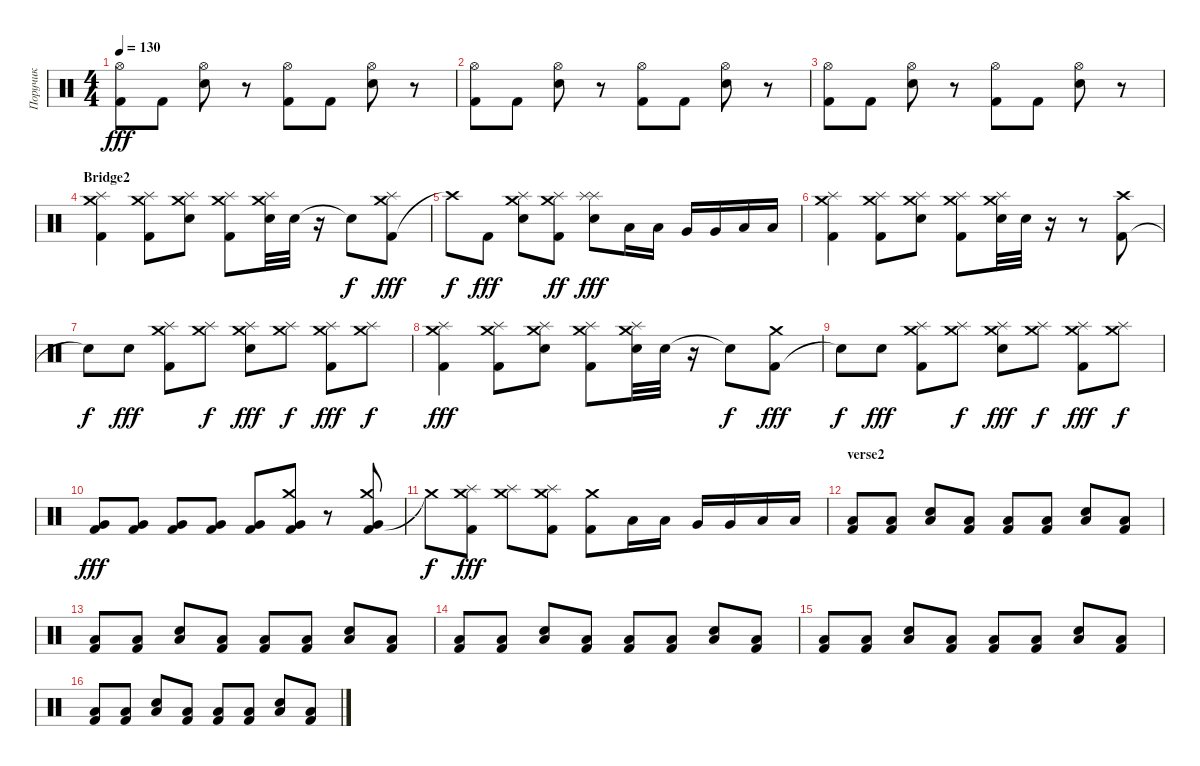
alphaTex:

\track ("Поручик" "Поручик") {instrument percussion}
\staff {score}
\articulation defaults
\ts (4 4)
\tempo 130
\clef neutral
\ks c
("Kick (hit) 2" "Hi-Hat (open)").8{dy fff} "Kick (hit) 2".8 ("Snare (hit) 2" "Hi-Hat (open)").8 r.8 ("Kick (hit) 2" "Hi-Hat (open)").8 "Kick (hit) 2".8 ("Snare (hit) 2" "Hi-Hat (open)").8 r.8 |
("Kick (hit) 2" "Hi-Hat (open)").8 "Kick (hit) 2".8 ("Snare (hit) 2" "Hi-Hat (open)").8 r.8 ("Kick (hit) 2" "Hi-Hat (open)").8 "Kick (hit) 2".8 ("Snare (hit) 2" "Hi-Hat (open)").8 r.8 |
("Kick (hit) 2" "Hi-Hat (open)").8 "Kick (hit) 2".8 ("Snare (hit) 2" "Hi-Hat (open)").8 r.8 ("Kick (hit) 2" "Hi-Hat (open)").8 "Kick (hit) 2".8 ("Snare (hit) 2" "Hi-Hat (open)").8 r.8 |
\section ("" "Bridge2")
("Kick (hit) 2" "Crash medium (hit)" "Splash (hit)").4 ("Kick (hit) 2" "Crash medium (hit)" "Splash (hit)").8 ("Snare (hit) 2" "Crash medium (hit)" "Splash (hit)").8 ("Kick (hit) 2" "Crash medium (hit)" "Splash (hit)").8 ("Snare (hit) 2" "Crash medium (hit)" "Splash (hit)").32 "Snare (hit) 2".32 r.16 "Snare (hit)"{t}.8{dy f} ("Kick (hit) 2" "Crash medium (hit)" "Splash (hit)").8{dy fff} |
"Crash high (hit)"{t}.8{dy f} "Kick (hit) 2".8{dy fff} ("Snare (hit) 2" "Crash medium (hit)" "Splash (hit)").8 ("Kick (hit) 2" "Crash medium (hit)" "Splash (hit)").8{dy ff} ("Snare (hit) 2" "Splash (hit)" "Splash (hit)").8{dy fff} "Low Tom (hit)".16 "Low Tom (hit)".16 "Very Low Tom (hit)".16 "Very Low Tom (hit)".16 "Low Floor Tom (hit)".16 "Low Floor Tom (hit)".16 |
("Kick (hit) 2" "Crash medium (hit)" "Splash (hit)").4 ("Kick (hit) 2" "Crash medium (hit)" "Splash (hit)").8 ("Snare (hit) 2" "Crash medium (hit)" "Splash (hit)").8 ("Kick (hit) 2" "Crash medium (hit)" "Splash (hit)").8 ("Snare (hit) 2" "Crash medium (hit)" "Splash (hit)").32 "Snare (hit) 2".32 r.16 r.8 ("Kick (hit) 2" "Crash high (hit)").8 |
"Snare (hit)"{t}.8{dy f} "Snare (hit) 2".8{dy fff} ("Kick (hit) 2" "Crash medium (hit)" "Splash (hit)").8 ("Crash medium (hit)" "Splash (hit)").8{dy f} ("Snare (hit) 2" "Crash medium (hit)" "Splash (hit)").8{dy fff} ("Crash medium (hit)" "Splash (hit)").8{dy f} ("Kick (hit) 2" "Crash medium (hit)" "Splash (hit)").8{dy fff} ("Crash medium (hit)" "Splash (hit)").8{dy f} |
("Kick (hit) 2" "Crash medium (hit)" "Splash (hit)").4{dy fff} ("Kick (hit) 2" "Crash medium (hit)" "Splash (hit)").8 ("Snare (hit) 2" "Crash medium (hit)" "Splash (hit)").8 ("Kick (hit) 2" "Crash medium (hit)" "Splash (hit)").8 ("Snare (hit) 2" "Crash medium (hit)" "Splash (hit)").32 "Snare (hit) 2".32 r.16 "Snare (hit)"{t}.8{dy f} ("Kick (hit) 2" "Crash medium (hit)").8{dy fff} |
"Snare (hit)"{t}.8{dy f} "Snare (hit) 2".8{dy fff} ("Kick (hit) 2" "Crash medium (hit)" "Splash (hit)").8 ("Crash medium (hit)" "Splash (hit)").8{dy f} ("Snare (hit) 2" "Crash medium (hit)" "Splash (hit)").8{dy fff} ("Crash medium (hit)" "Splash (hit)").8{dy f} ("Kick (hit) 2" "Crash medium (hit)" "Splash (hit)").8{dy fff} ("Crash medium (hit)" "Splash (hit)").8{dy f} |
("Very Low Tom (hit)" "Kick (hit) 2").8{dy fff} ("Very Low Tom (hit)" "Kick (hit) 2").8 ("Very Low Tom (hit)" "Kick (hit) 2").8 ("Very Low Tom (hit)" "Kick (hit) 2").8 ("Very Low Tom (hit)" "Kick (hit) 2").8 ("Very Low Tom (hit)" "Kick (hit) 2" "Crash medium (hit)").8 r.8 ("Very Low Tom (hit)" "Kick (hit) 2" "Crash medium (hit)").8 |
"Crash medium (hit)"{t}.8{dy f} ("Kick (hit) 2" "Crash medium (hit)" "Splash (hit)").8{dy fff} ("Crash medium (hit)" "Splash (hit)").8 ("Kick (hit) 2" "Crash medium (hit)" "Splash (hit)").8 ("Kick (hit) 2" "Crash medium (hit)").8 "Low Tom (hit)".16 "Low Tom (hit)".16 "Very Low Tom (hit)".16 "Very Low Tom (hit)".16 "Low Floor Tom (hit)".16 "Low Floor Tom (hit)".16 |
\section ("" "verse2")
("Kick (hit) 2" "Low Tom (hit)").8 ("Kick (hit) 2" "Low Tom (hit)").8 ("Snare (hit) 2" "Low Tom (hit)").8 ("Kick (hit) 2" "Low Tom (hit)").8 ("Kick (hit) 2" "Low Tom (hit)").8 ("Kick (hit) 2" "Low Tom (hit)").8 ("Snare (hit) 2" "Low Tom (hit)").8 ("Kick (hit) 2" "Low Tom (hit)").8 |
("Kick (hit) 2" "Low Tom (hit)").8 ("Kick (hit) 2" "Low Tom (hit)").8 ("Snare (hit) 2" "Low Tom (hit)").8 ("Kick (hit) 2" "Low Tom (hit)").8 ("Kick (hit) 2" "Low Tom (hit)").8 ("Kick (hit) 2" "Low Tom (hit)").8 ("Snare (hit) 2" "Low Tom (hit)").8 ("Kick (hit) 2" "Low Tom (hit)").8 |
("Kick (hit) 2" "Low Tom (hit)").8 ("Kick (hit) 2" "Low Tom (hit)").8 ("Snare (hit) 2" "Low Tom (hit)").8 ("Kick (hit) 2" "Low Tom (hit)").8 ("Kick (hit) 2" "Low Tom (hit)").8 ("Kick (hit) 2" "Low Tom (hit)").8 ("Snare (hit) 2" "Low Tom (hit)").8 ("Kick (hit) 2" "Low Tom (hit)").8 |
("Kick (hit) 2" "Low Tom (hit)").8 ("Kick (hit) 2" "Low Tom (hit)").8 ("Snare (hit) 2" "Low Tom (hit)").8 ("Kick (hit) 2" "Low Tom (hit)").8 ("Kick (hit) 2" "Low Tom (hit)").8 ("Kick (hit) 2" "Low Tom (hit)").8 ("Snare (hit) 2" "Low Tom (hit)").8 ("Kick (hit) 2" "Low Tom (hit)").8 |
("Kick (hit) 2" "Low Tom (hit)").8 ("Kick (hit) 2" "Low Tom (hit)").8 ("Snare (hit) 2" "Low Tom (hit)").8 ("Kick (hit) 2" "Low Tom (hit)").8 ("Kick (hit) 2" "Low Tom (hit)").8 ("Kick (hit) 2" "Low Tom (hit)").8 ("Snare (hit) 2" "Low Tom (hit)").8 ("Kick (hit) 2" "Low Tom (hit)").8
